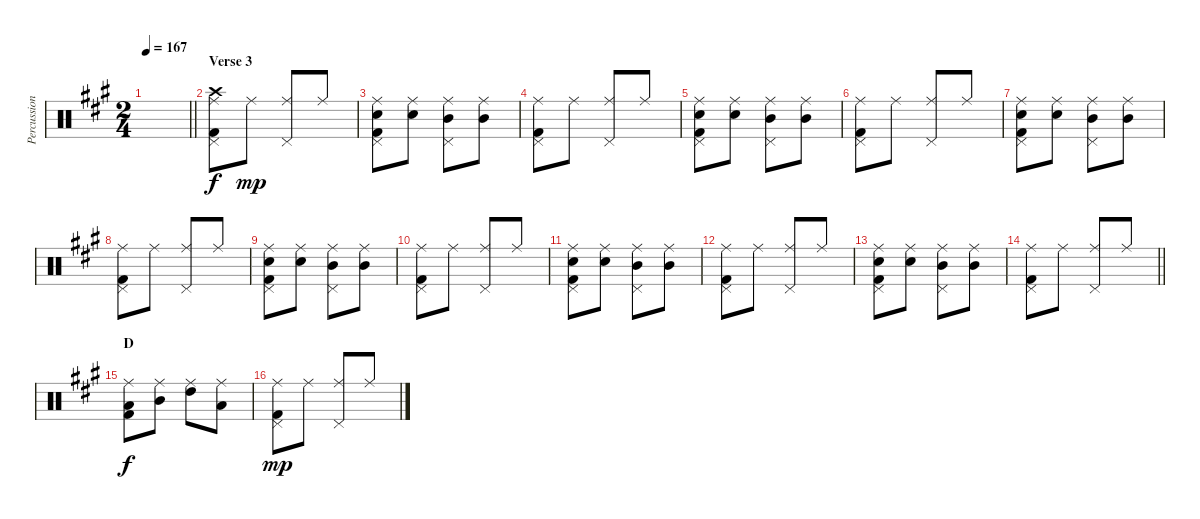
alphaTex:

\track ("Percussion" "Percussion") {instrument percussion}
\staff {score}
\articulation defaults
\ts (2 4)
\tempo 167
\clef neutral
\barLineRight lightlight
\ks a
|
\section ("" "Verse 3")
("Ride (middle)" "Crash high (hit)" "Pedal Hi-Hat (hit)" "Kick (hit) 2").8 "Ride (middle)".8{dy mp} ("Ride (middle)" "Pedal Hi-Hat (hit)").8 "Ride (middle)".8 |
("Ride (middle)" "Snare (hit) 2" "Pedal Hi-Hat (hit)" "Kick (hit) 2").8 ("Ride (middle)" "Snare (hit) 2").8 ("Ride (middle)" "Mid Tom (hit)" "Pedal Hi-Hat (hit)").8 ("Ride (middle)" "Mid Tom (hit)").8 |
("Ride (middle)" "Pedal Hi-Hat (hit)" "Kick (hit) 2").8 "Ride (middle)".8 ("Ride (middle)" "Pedal Hi-Hat (hit)").8 "Ride (middle)".8 |
("Ride (middle)" "Snare (hit) 2" "Pedal Hi-Hat (hit)" "Kick (hit) 2").8 ("Ride (middle)" "Snare (hit) 2").8 ("Ride (middle)" "Mid Tom (hit)" "Pedal Hi-Hat (hit)").8 ("Ride (middle)" "Mid Tom (hit)").8 |
("Ride (middle)" "Pedal Hi-Hat (hit)" "Kick (hit) 2").8 "Ride (middle)".8 ("Ride (middle)" "Pedal Hi-Hat (hit)").8 "Ride (middle)".8 |
("Ride (middle)" "Snare (hit) 2" "Pedal Hi-Hat (hit)" "Kick (hit) 2").8 ("Ride (middle)" "Snare (hit) 2").8 ("Ride (middle)" "Mid Tom (hit)" "Pedal Hi-Hat (hit)").8 ("Ride (middle)" "Mid Tom (hit)").8 |
("Ride (middle)" "Pedal Hi-Hat (hit)" "Kick (hit) 2").8 "Ride (middle)".8 ("Ride (middle)" "Pedal Hi-Hat (hit)").8 "Ride (middle)".8 |
("Ride (middle)" "Snare (hit) 2" "Pedal Hi-Hat (hit)" "Kick (hit) 2").8 ("Ride (middle)" "Snare (hit) 2").8 ("Ride (middle)" "Mid Tom (hit)" "Pedal Hi-Hat (hit)").8 ("Ride (middle)" "Mid Tom (hit)").8 |
("Ride (middle)" "Pedal Hi-Hat (hit)" "Kick (hit) 2").8 "Ride (middle)".8 ("Ride (middle)" "Pedal Hi-Hat (hit)").8 "Ride (middle)".8 |
("Ride (middle)" "Snare (hit) 2" "Pedal Hi-Hat (hit)" "Kick (hit) 2").8 ("Ride (middle)" "Snare (hit) 2").8 ("Ride (middle)" "Mid Tom (hit)" "Pedal Hi-Hat (hit)").8 ("Ride (middle)" "Mid Tom (hit)").8 |
("Ride (middle)" "Pedal Hi-Hat (hit)" "Kick (hit) 2").8 "Ride (middle)".8 ("Ride (middle)" "Pedal Hi-Hat (hit)").8 "Ride (middle)".8 |
("Ride (middle)" "Snare (hit) 2" "Pedal Hi-Hat (hit)" "Kick (hit) 2").8 ("Ride (middle)" "Snare (hit) 2").8 ("Ride (middle)" "Mid Tom (hit)" "Pedal Hi-Hat (hit)").8 ("Ride (middle)" "Mid Tom (hit)").8 |
\barLineRight lightlight
("Ride (middle)" "Pedal Hi-Hat (hit)" "Kick (hit) 2").8 "Ride (middle)".8 ("Ride (middle)" "Pedal Hi-Hat (hit)").8 "Ride (middle)".8 |
\section ("" "D")
("Ride (middle)" "Low Tom (hit)" "Kick (hit) 2").8{dy f} ("Ride (middle)" "Mid Tom (hit)").8 ("Ride (middle)" "High Tom (hit)").8 ("Ride (middle)" "Low Tom (hit)").8 |
("Ride (middle)" "Pedal Hi-Hat (hit)" "Kick (hit) 2").8{dy mp} "Ride (middle)".8 ("Ride (middle)" "Pedal Hi-Hat (hit)").8 "Ride (middle)".8
